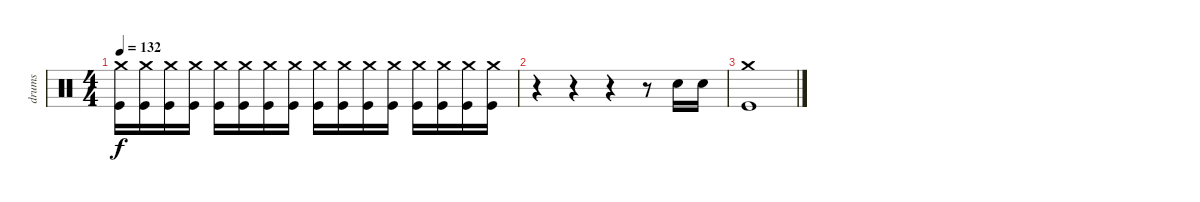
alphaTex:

\track ("drums" "drums") {instrument percussion}
\staff {score}
\articulation defaults
\ts (4 4)
\tempo 132
\clef neutral
\ks c
("Crash medium (hit)" "Kick (hit)").16{dy f} ("Crash medium (hit)" "Kick (hit)").16 ("Crash medium (hit)" "Kick (hit)").16 ("Crash medium (hit)" "Kick (hit)").16 ("Crash medium (hit)" "Kick (hit)").16 ("Crash medium (hit)" "Kick (hit)").16 ("Crash medium (hit)" "Kick (hit)").16 ("Crash medium (hit)" "Kick (hit)").16 ("Crash medium (hit)" "Kick (hit)").16 ("Crash medium (hit)" "Kick (hit)").16 ("Crash medium (hit)" "Kick (hit)").16 ("Crash medium (hit)" "Kick (hit)").16 ("Crash medium (hit)" "Kick (hit)").16 ("Crash medium (hit)" "Kick (hit)").16 ("Crash medium (hit)" "Kick (hit)").16 ("Crash medium (hit)" "Kick (hit)").16 |
r.4 r.4 r.4 r.8 "Snare (hit) 2".16 "Snare (hit) 2".16 |
("Crash medium (hit)" "Kick (hit)").1
